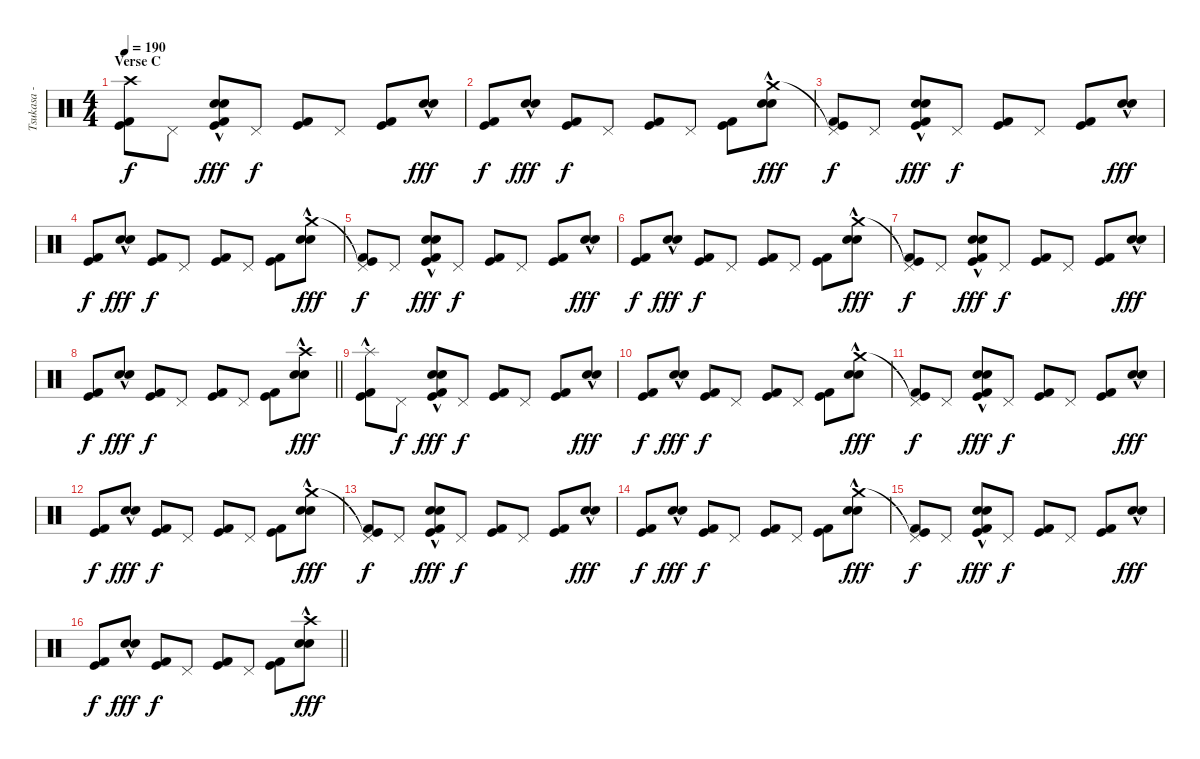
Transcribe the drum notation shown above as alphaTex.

\track ("Tsukasa - Drums" "Tsukasa - ") {instrument percussion}
\staff {score}
\articulation defaults
\ts (4 4)
\section ("" "Verse C")
\tempo 190
\clef neutral
\ks c
("Crash high (hit)" "Kick (hit)" "Kick (hit) 2").8{dy f} "Pedal Hi-Hat (hit)".8 ("Electric Snare (hit)"{hac} "Snare (hit) 2" "Kick (hit)" "Kick (hit) 2").8{dy fff} "Pedal Hi-Hat (hit)".8{dy f} ("Kick (hit)" "Kick (hit) 2").8 "Pedal Hi-Hat (hit)".8 ("Kick (hit)" "Kick (hit) 2").8 ("Electric Snare (hit)"{hac} "Snare (hit) 2").8{dy fff} |
("Kick (hit)" "Kick (hit) 2").8{dy f} ("Electric Snare (hit)"{hac} "Snare (hit) 2").8{dy fff} ("Kick (hit)" "Kick (hit) 2").8{dy f} "Pedal Hi-Hat (hit)".8 ("Kick (hit)" "Kick (hit) 2").8 "Pedal Hi-Hat (hit)".8 ("Kick (hit)" "Kick (hit) 2").8 ("Crash medium (hit)" "Electric Snare (hit)"{hac} "Snare (hit) 2").8{dy fff} |
("Pedal Hi-Hat (hit)"{t} "Kick (hit)" "Kick (hit) 2").8{dy f} "Pedal Hi-Hat (hit)".8 ("Electric Snare (hit)"{hac} "Snare (hit) 2" "Kick (hit)" "Kick (hit) 2").8{dy fff} "Pedal Hi-Hat (hit)".8{dy f} ("Kick (hit)" "Kick (hit) 2").8 "Pedal Hi-Hat (hit)".8 ("Kick (hit)" "Kick (hit) 2").8 ("Electric Snare (hit)"{hac} "Snare (hit) 2").8{dy fff} |
("Kick (hit)" "Kick (hit) 2").8{dy f} ("Electric Snare (hit)"{hac} "Snare (hit) 2").8{dy fff} ("Kick (hit)" "Kick (hit) 2").8{dy f} "Pedal Hi-Hat (hit)".8 ("Kick (hit)" "Kick (hit) 2").8 "Pedal Hi-Hat (hit)".8 ("Kick (hit)" "Kick (hit) 2").8 ("Crash medium (hit)" "Electric Snare (hit)"{hac} "Snare (hit) 2").8{dy fff} |
("Pedal Hi-Hat (hit)"{t} "Kick (hit)" "Kick (hit) 2").8{dy f} "Pedal Hi-Hat (hit)".8 ("Electric Snare (hit)"{hac} "Snare (hit) 2" "Kick (hit)" "Kick (hit) 2").8{dy fff} "Pedal Hi-Hat (hit)".8{dy f} ("Kick (hit)" "Kick (hit) 2").8 "Pedal Hi-Hat (hit)".8 ("Kick (hit)" "Kick (hit) 2").8 ("Electric Snare (hit)"{hac} "Snare (hit) 2").8{dy fff} |
("Kick (hit)" "Kick (hit) 2").8{dy f} ("Electric Snare (hit)"{hac} "Snare (hit) 2").8{dy fff} ("Kick (hit)" "Kick (hit) 2").8{dy f} "Pedal Hi-Hat (hit)".8 ("Kick (hit)" "Kick (hit) 2").8 "Pedal Hi-Hat (hit)".8 ("Kick (hit)" "Kick (hit) 2").8 ("Crash medium (hit)" "Electric Snare (hit)"{hac} "Snare (hit) 2").8{dy fff} |
("Pedal Hi-Hat (hit)"{t} "Kick (hit)" "Kick (hit) 2").8{dy f} "Pedal Hi-Hat (hit)".8 ("Electric Snare (hit)"{hac} "Snare (hit) 2" "Kick (hit)" "Kick (hit) 2").8{dy fff} "Pedal Hi-Hat (hit)".8{dy f} ("Kick (hit)" "Kick (hit) 2").8 "Pedal Hi-Hat (hit)".8 ("Kick (hit)" "Kick (hit) 2").8 ("Electric Snare (hit)"{hac} "Snare (hit) 2").8{dy fff} |
\barLineRight lightlight
("Kick (hit)" "Kick (hit) 2").8{dy f} ("Electric Snare (hit)"{hac} "Snare (hit) 2").8{dy fff} ("Kick (hit)" "Kick (hit) 2").8{dy f} "Pedal Hi-Hat (hit)".8 ("Kick (hit)" "Kick (hit) 2").8 "Pedal Hi-Hat (hit)".8 ("Kick (hit)" "Kick (hit) 2").8 ("Crash high (hit)" "Electric Snare (hit)"{hac} "Snare (hit) 2").8{dy fff} |
\section ("" "")
("Splash (hit)"{hac} "Kick (hit)" "Kick (hit) 2").8 "Pedal Hi-Hat (hit)".8{dy f} ("Electric Snare (hit)"{hac} "Snare (hit) 2" "Kick (hit)" "Kick (hit) 2").8{dy fff} "Pedal Hi-Hat (hit)".8{dy f} ("Kick (hit)" "Kick (hit) 2").8 "Pedal Hi-Hat (hit)".8 ("Kick (hit)" "Kick (hit) 2").8 ("Electric Snare (hit)"{hac} "Snare (hit) 2").8{dy fff} |
("Kick (hit)" "Kick (hit) 2").8{dy f} ("Electric Snare (hit)"{hac} "Snare (hit) 2").8{dy fff} ("Kick (hit)" "Kick (hit) 2").8{dy f} "Pedal Hi-Hat (hit)".8 ("Kick (hit)" "Kick (hit) 2").8 "Pedal Hi-Hat (hit)".8 ("Kick (hit)" "Kick (hit) 2").8 ("Crash medium (hit)" "Electric Snare (hit)"{hac} "Snare (hit) 2").8{dy fff} |
("Pedal Hi-Hat (hit)"{t} "Kick (hit)" "Kick (hit) 2").8{dy f} "Pedal Hi-Hat (hit)".8 ("Electric Snare (hit)"{hac} "Snare (hit) 2" "Kick (hit)" "Kick (hit) 2").8{dy fff} "Pedal Hi-Hat (hit)".8{dy f} ("Kick (hit)" "Kick (hit) 2").8 "Pedal Hi-Hat (hit)".8 ("Kick (hit)" "Kick (hit) 2").8 ("Electric Snare (hit)"{hac} "Snare (hit) 2").8{dy fff} |
("Kick (hit)" "Kick (hit) 2").8{dy f} ("Electric Snare (hit)"{hac} "Snare (hit) 2").8{dy fff} ("Kick (hit)" "Kick (hit) 2").8{dy f} "Pedal Hi-Hat (hit)".8 ("Kick (hit)" "Kick (hit) 2").8 "Pedal Hi-Hat (hit)".8 ("Kick (hit)" "Kick (hit) 2").8 ("Crash medium (hit)" "Electric Snare (hit)"{hac} "Snare (hit) 2").8{dy fff} |
("Pedal Hi-Hat (hit)"{t} "Kick (hit)" "Kick (hit) 2").8{dy f} "Pedal Hi-Hat (hit)".8 ("Electric Snare (hit)"{hac} "Snare (hit) 2" "Kick (hit)" "Kick (hit) 2").8{dy fff} "Pedal Hi-Hat (hit)".8{dy f} ("Kick (hit)" "Kick (hit) 2").8 "Pedal Hi-Hat (hit)".8 ("Kick (hit)" "Kick (hit) 2").8 ("Electric Snare (hit)"{hac} "Snare (hit) 2").8{dy fff} |
("Kick (hit)" "Kick (hit) 2").8{dy f} ("Electric Snare (hit)"{hac} "Snare (hit) 2").8{dy fff} ("Kick (hit)" "Kick (hit) 2").8{dy f} "Pedal Hi-Hat (hit)".8 ("Kick (hit)" "Kick (hit) 2").8 "Pedal Hi-Hat (hit)".8 ("Kick (hit)" "Kick (hit) 2").8 ("Crash medium (hit)" "Electric Snare (hit)"{hac} "Snare (hit) 2").8{dy fff} |
("Pedal Hi-Hat (hit)"{t} "Kick (hit)" "Kick (hit) 2").8{dy f} "Pedal Hi-Hat (hit)".8 ("Electric Snare (hit)"{hac} "Snare (hit) 2" "Kick (hit)" "Kick (hit) 2").8{dy fff} "Pedal Hi-Hat (hit)".8{dy f} ("Kick (hit)" "Kick (hit) 2").8 "Pedal Hi-Hat (hit)".8 ("Kick (hit)" "Kick (hit) 2").8 ("Electric Snare (hit)"{hac} "Snare (hit) 2").8{dy fff} |
\barLineRight lightlight
("Kick (hit)" "Kick (hit) 2").8{dy f} ("Electric Snare (hit)"{hac} "Snare (hit) 2").8{dy fff} ("Kick (hit)" "Kick (hit) 2").8{dy f} "Pedal Hi-Hat (hit)".8 ("Kick (hit)" "Kick (hit) 2").8 "Pedal Hi-Hat (hit)".8 ("Kick (hit)" "Kick (hit) 2").8 ("Crash high (hit)" "Electric Snare (hit)"{hac} "Snare (hit) 2").8{dy fff}
